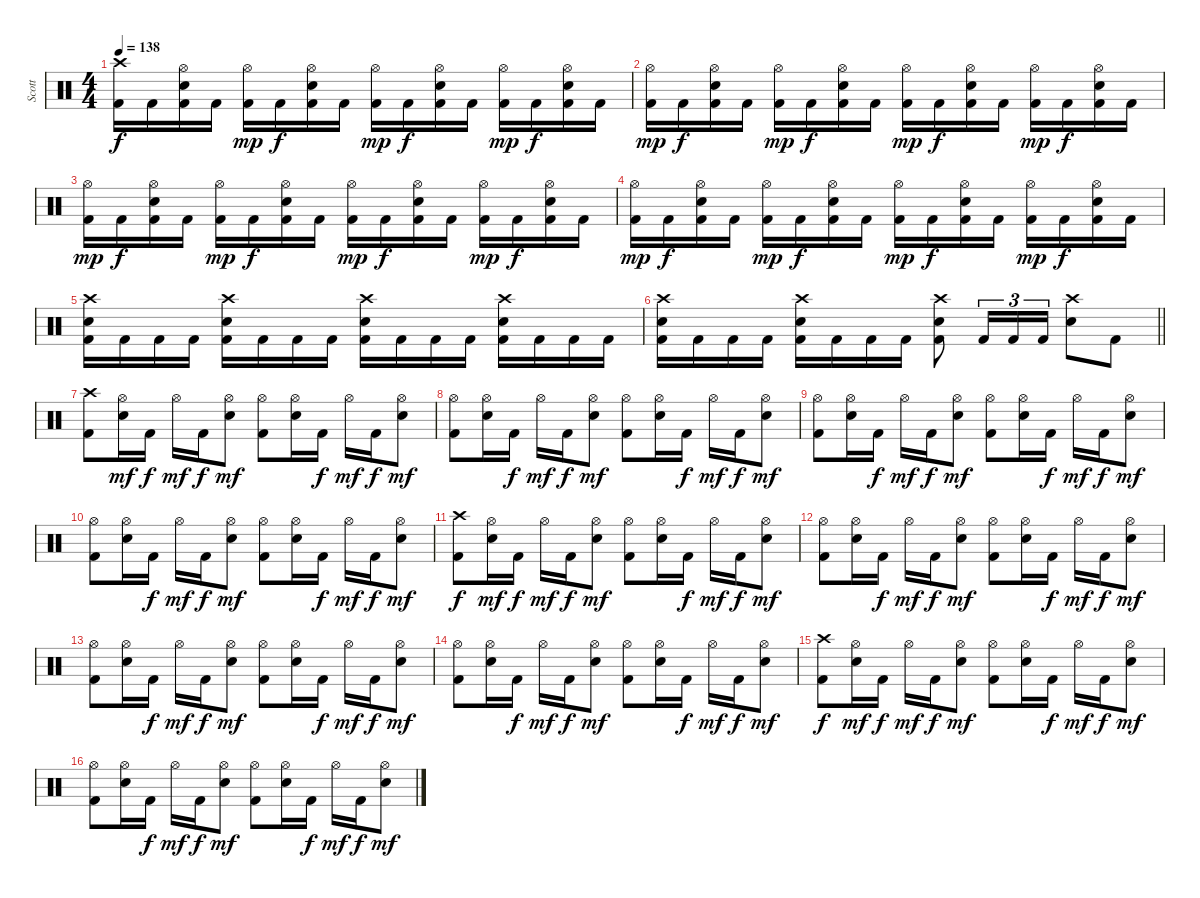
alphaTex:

\track ("Scott" "Scott") {instrument percussion}
\staff {score}
\articulation defaults
\ts (4 4)
\tempo 138
\clef neutral
\ks c
("Crash high (hit)" "Kick (hit) 2").16{dy f} "Kick (hit) 2".16 ("Hi-Hat (open)" "Electric Snare (hit)" "Kick (hit) 2").16 "Kick (hit) 2".16 ("Hi-Hat (open)" "Kick (hit) 2").16{dy mp} "Kick (hit) 2".16{dy f} ("Hi-Hat (open)" "Electric Snare (hit)" "Kick (hit) 2").16 "Kick (hit) 2".16 ("Hi-Hat (open)" "Kick (hit) 2").16{dy mp} "Kick (hit) 2".16{dy f} ("Hi-Hat (open)" "Electric Snare (hit)" "Kick (hit) 2").16 "Kick (hit) 2".16 ("Hi-Hat (open)" "Kick (hit) 2").16{dy mp} "Kick (hit) 2".16{dy f} ("Hi-Hat (open)" "Electric Snare (hit)" "Kick (hit) 2").16 "Kick (hit) 2".16 |
("Hi-Hat (open)" "Kick (hit) 2").16{dy mp} "Kick (hit) 2".16{dy f} ("Hi-Hat (open)" "Electric Snare (hit)" "Kick (hit) 2").16 "Kick (hit) 2".16 ("Hi-Hat (open)" "Kick (hit) 2").16{dy mp} "Kick (hit) 2".16{dy f} ("Hi-Hat (open)" "Electric Snare (hit)" "Kick (hit) 2").16 "Kick (hit) 2".16 ("Hi-Hat (open)" "Kick (hit) 2").16{dy mp} "Kick (hit) 2".16{dy f} ("Hi-Hat (open)" "Electric Snare (hit)" "Kick (hit) 2").16 "Kick (hit) 2".16 ("Hi-Hat (open)" "Kick (hit) 2").16{dy mp} "Kick (hit) 2".16{dy f} ("Hi-Hat (open)" "Electric Snare (hit)" "Kick (hit) 2").16 "Kick (hit) 2".16 |
("Hi-Hat (open)" "Kick (hit) 2").16{dy mp} "Kick (hit) 2".16{dy f} ("Hi-Hat (open)" "Electric Snare (hit)" "Kick (hit) 2").16 "Kick (hit) 2".16 ("Hi-Hat (open)" "Kick (hit) 2").16{dy mp} "Kick (hit) 2".16{dy f} ("Hi-Hat (open)" "Electric Snare (hit)" "Kick (hit) 2").16 "Kick (hit) 2".16 ("Hi-Hat (open)" "Kick (hit) 2").16{dy mp} "Kick (hit) 2".16{dy f} ("Hi-Hat (open)" "Electric Snare (hit)" "Kick (hit) 2").16 "Kick (hit) 2".16 ("Hi-Hat (open)" "Kick (hit) 2").16{dy mp} "Kick (hit) 2".16{dy f} ("Hi-Hat (open)" "Electric Snare (hit)" "Kick (hit) 2").16 "Kick (hit) 2".16 |
("Hi-Hat (open)" "Kick (hit) 2").16{dy mp} "Kick (hit) 2".16{dy f} ("Hi-Hat (open)" "Electric Snare (hit)" "Kick (hit) 2").16 "Kick (hit) 2".16 ("Hi-Hat (open)" "Kick (hit) 2").16{dy mp} "Kick (hit) 2".16{dy f} ("Hi-Hat (open)" "Electric Snare (hit)" "Kick (hit) 2").16 "Kick (hit) 2".16 ("Hi-Hat (open)" "Kick (hit) 2").16{dy mp} "Kick (hit) 2".16{dy f} ("Hi-Hat (open)" "Electric Snare (hit)" "Kick (hit) 2").16 "Kick (hit) 2".16 ("Hi-Hat (open)" "Kick (hit) 2").16{dy mp} "Kick (hit) 2".16{dy f} ("Hi-Hat (open)" "Electric Snare (hit)" "Kick (hit) 2").16 "Kick (hit) 2".16 |
("Crash high (hit)" "Electric Snare (hit)" "Kick (hit) 2").16 "Kick (hit) 2".16 "Kick (hit) 2".16 "Kick (hit) 2".16 ("Crash high (hit)" "Electric Snare (hit)" "Kick (hit) 2").16 "Kick (hit) 2".16 "Kick (hit) 2".16 "Kick (hit) 2".16 ("Crash high (hit)" "Electric Snare (hit)" "Kick (hit) 2").16 "Kick (hit) 2".16 "Kick (hit) 2".16 "Kick (hit) 2".16 ("Crash high (hit)" "Electric Snare (hit)" "Kick (hit) 2").16 "Kick (hit) 2".16 "Kick (hit) 2".16 "Kick (hit) 2".16 |
\barLineRight lightlight
("Crash high (hit)" "Electric Snare (hit)" "Kick (hit) 2").16 "Kick (hit) 2".16 "Kick (hit) 2".16 "Kick (hit) 2".16 ("Crash high (hit)" "Electric Snare (hit)" "Kick (hit) 2").16 "Kick (hit) 2".16 "Kick (hit) 2".16 "Kick (hit) 2".16 ("Crash high (hit)" "Electric Snare (hit)" "Kick (hit) 2").8 "Kick (hit) 2".16{tu (3 2)} "Kick (hit) 2".16{tu (3 2)} "Kick (hit) 2".16{tu (3 2)} ("Crash high (hit)" "Electric Snare (hit)").8 "Kick (hit) 2".8 |
("Crash high (hit)" "Kick (hit) 2").8 ("Hi-Hat (open)" "Electric Snare (hit)").16{dy mf} "Kick (hit) 2".16{dy f} "Hi-Hat (open)".16{dy mf} "Kick (hit) 2".16{dy f} ("Hi-Hat (open)" "Electric Snare (hit)").8{dy mf} ("Hi-Hat (open)" "Kick (hit) 2").8 ("Hi-Hat (open)" "Electric Snare (hit)").16 "Kick (hit) 2".16{dy f} "Hi-Hat (open)".16{dy mf} "Kick (hit) 2".16{dy f} ("Hi-Hat (open)" "Electric Snare (hit)").8{dy mf} |
("Hi-Hat (open)" "Kick (hit) 2").8 ("Hi-Hat (open)" "Electric Snare (hit)").16 "Kick (hit) 2".16{dy f} "Hi-Hat (open)".16{dy mf} "Kick (hit) 2".16{dy f} ("Hi-Hat (open)" "Electric Snare (hit)").8{dy mf} ("Hi-Hat (open)" "Kick (hit) 2").8 ("Hi-Hat (open)" "Electric Snare (hit)").16 "Kick (hit) 2".16{dy f} "Hi-Hat (open)".16{dy mf} "Kick (hit) 2".16{dy f} ("Hi-Hat (open)" "Electric Snare (hit)").8{dy mf} |
("Hi-Hat (open)" "Kick (hit) 2").8 ("Hi-Hat (open)" "Electric Snare (hit)").16 "Kick (hit) 2".16{dy f} "Hi-Hat (open)".16{dy mf} "Kick (hit) 2".16{dy f} ("Hi-Hat (open)" "Electric Snare (hit)").8{dy mf} ("Hi-Hat (open)" "Kick (hit) 2").8 ("Hi-Hat (open)" "Electric Snare (hit)").16 "Kick (hit) 2".16{dy f} "Hi-Hat (open)".16{dy mf} "Kick (hit) 2".16{dy f} ("Hi-Hat (open)" "Electric Snare (hit)").8{dy mf} |
("Hi-Hat (open)" "Kick (hit) 2").8 ("Hi-Hat (open)" "Electric Snare (hit)").16 "Kick (hit) 2".16{dy f} "Hi-Hat (open)".16{dy mf} "Kick (hit) 2".16{dy f} ("Hi-Hat (open)" "Electric Snare (hit)").8{dy mf} ("Hi-Hat (open)" "Kick (hit) 2").8 ("Hi-Hat (open)" "Electric Snare (hit)").16 "Kick (hit) 2".16{dy f} "Hi-Hat (open)".16{dy mf} "Kick (hit) 2".16{dy f} ("Hi-Hat (open)" "Electric Snare (hit)").8{dy mf} |
("Crash high (hit)" "Kick (hit) 2").8{dy f} ("Hi-Hat (open)" "Electric Snare (hit)").16{dy mf} "Kick (hit) 2".16{dy f} "Hi-Hat (open)".16{dy mf} "Kick (hit) 2".16{dy f} ("Hi-Hat (open)" "Electric Snare (hit)").8{dy mf} ("Hi-Hat (open)" "Kick (hit) 2").8 ("Hi-Hat (open)" "Electric Snare (hit)").16 "Kick (hit) 2".16{dy f} "Hi-Hat (open)".16{dy mf} "Kick (hit) 2".16{dy f} ("Hi-Hat (open)" "Electric Snare (hit)").8{dy mf} |
("Hi-Hat (open)" "Kick (hit) 2").8 ("Hi-Hat (open)" "Electric Snare (hit)").16 "Kick (hit) 2".16{dy f} "Hi-Hat (open)".16{dy mf} "Kick (hit) 2".16{dy f} ("Hi-Hat (open)" "Electric Snare (hit)").8{dy mf} ("Hi-Hat (open)" "Kick (hit) 2").8 ("Hi-Hat (open)" "Electric Snare (hit)").16 "Kick (hit) 2".16{dy f} "Hi-Hat (open)".16{dy mf} "Kick (hit) 2".16{dy f} ("Hi-Hat (open)" "Electric Snare (hit)").8{dy mf} |
("Hi-Hat (open)" "Kick (hit) 2").8 ("Hi-Hat (open)" "Electric Snare (hit)").16 "Kick (hit) 2".16{dy f} "Hi-Hat (open)".16{dy mf} "Kick (hit) 2".16{dy f} ("Hi-Hat (open)" "Electric Snare (hit)").8{dy mf} ("Hi-Hat (open)" "Kick (hit) 2").8 ("Hi-Hat (open)" "Electric Snare (hit)").16 "Kick (hit) 2".16{dy f} "Hi-Hat (open)".16{dy mf} "Kick (hit) 2".16{dy f} ("Hi-Hat (open)" "Electric Snare (hit)").8{dy mf} |
("Hi-Hat (open)" "Kick (hit) 2").8 ("Hi-Hat (open)" "Electric Snare (hit)").16 "Kick (hit) 2".16{dy f} "Hi-Hat (open)".16{dy mf} "Kick (hit) 2".16{dy f} ("Hi-Hat (open)" "Electric Snare (hit)").8{dy mf} ("Hi-Hat (open)" "Kick (hit) 2").8 ("Hi-Hat (open)" "Electric Snare (hit)").16 "Kick (hit) 2".16{dy f} "Hi-Hat (open)".16{dy mf} "Kick (hit) 2".16{dy f} ("Hi-Hat (open)" "Electric Snare (hit)").8{dy mf} |
("Crash high (hit)" "Kick (hit) 2").8{dy f} ("Hi-Hat (open)" "Electric Snare (hit)").16{dy mf} "Kick (hit) 2".16{dy f} "Hi-Hat (open)".16{dy mf} "Kick (hit) 2".16{dy f} ("Hi-Hat (open)" "Electric Snare (hit)").8{dy mf} ("Hi-Hat (open)" "Kick (hit) 2").8 ("Hi-Hat (open)" "Electric Snare (hit)").16 "Kick (hit) 2".16{dy f} "Hi-Hat (open)".16{dy mf} "Kick (hit) 2".16{dy f} ("Hi-Hat (open)" "Electric Snare (hit)").8{dy mf} |
("Hi-Hat (open)" "Kick (hit) 2").8 ("Hi-Hat (open)" "Electric Snare (hit)").16 "Kick (hit) 2".16{dy f} "Hi-Hat (open)".16{dy mf} "Kick (hit) 2".16{dy f} ("Hi-Hat (open)" "Electric Snare (hit)").8{dy mf} ("Hi-Hat (open)" "Kick (hit) 2").8 ("Hi-Hat (open)" "Electric Snare (hit)").16 "Kick (hit) 2".16{dy f} "Hi-Hat (open)".16{dy mf} "Kick (hit) 2".16{dy f} ("Hi-Hat (open)" "Electric Snare (hit)").8{dy mf}
